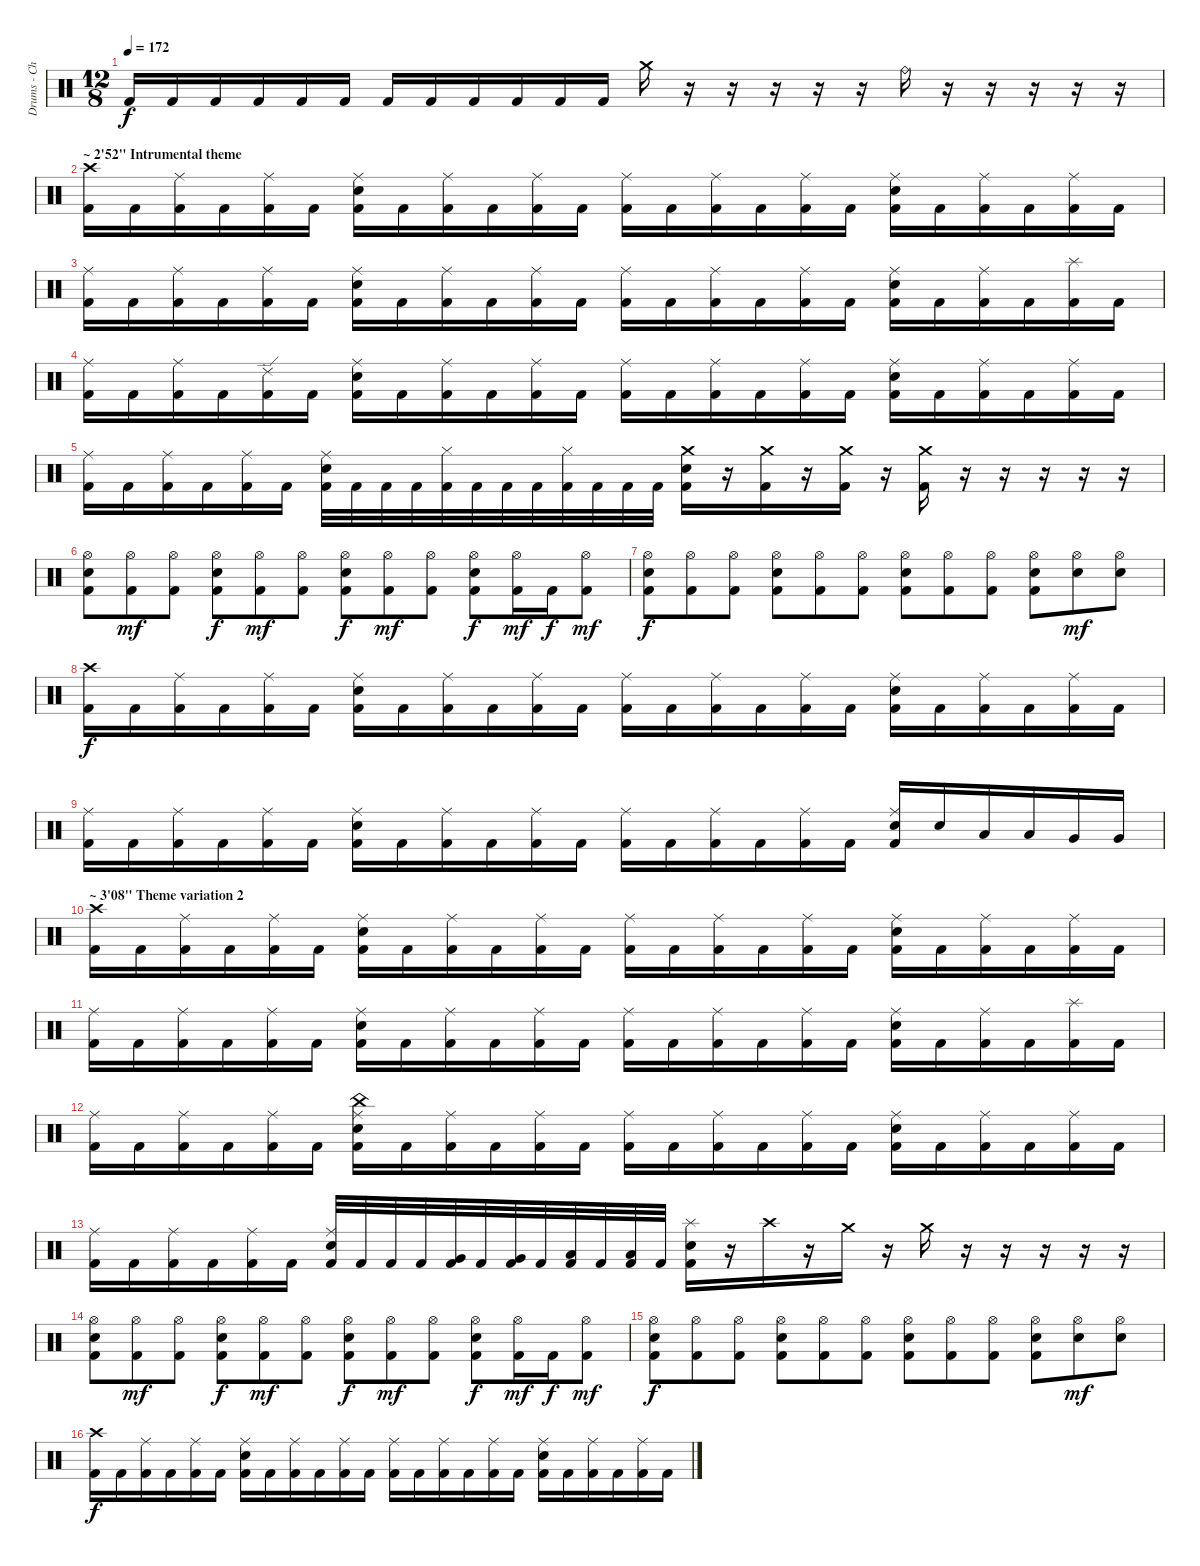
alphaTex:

\track ("Drums - Christopher Merzinsky" "Drums - Ch") {instrument percussion}
\staff {score}
\articulation defaults
\ts (12 8)
\tempo 172
\clef neutral
\ks c "Kick (hit) 2".16{dy f} "Kick (hit) 2".16 "Kick (hit) 2".16 "Kick (hit) 2".16 "Kick (hit) 2".16 "Kick (hit) 2".16 "Kick (hit) 2".16 "Kick (hit) 2".16 "Kick (hit) 2".16 "Kick (hit) 2".16 "Kick (hit) 2".16 "Kick (hit) 2".16 "Crash medium (hit)".16
r.16 r.16 r.16 r.16 r.16 "Ride (bell)".16 r.16 r.16 r.16 r.16 r.16 |
\section ("" "~ 2'52\" Intrumental theme ")
("Kick (hit) 2" "Crash high (hit)").16 "Kick (hit) 2".16 ("Kick (hit) 2" "Ride (middle)").16 "Kick (hit) 2".16 ("Kick (hit) 2" "Ride (middle)").16 "Kick (hit) 2".16 ("Kick (hit) 2" "Electric Snare (hit)" "Ride (middle)").16 "Kick (hit) 2".16 ("Kick (hit) 2" "Ride (middle)").16 "Kick (hit) 2".16 ("Kick (hit) 2" "Ride (middle)").16 "Kick (hit) 2".16 ("Kick (hit) 2" "Ride (middle)").16 "Kick (hit) 2".16 ("Kick (hit) 2" "Ride (middle)").16 "Kick (hit) 2".16 ("Kick (hit) 2" "Ride (middle)").16 "Kick (hit) 2".16 ("Kick (hit) 2" "Electric Snare (hit)" "Ride (middle)").16 "Kick (hit) 2".16 ("Kick (hit) 2" "Ride (middle)").16 "Kick (hit) 2".16 ("Kick (hit) 2" "Ride (middle)").16 "Kick (hit) 2".16 |
("Kick (hit) 2" "Ride (middle)").16 "Kick (hit) 2".16 ("Kick (hit) 2" "Ride (middle)").16 "Kick (hit) 2".16 ("Kick (hit) 2" "Ride (middle)").16 "Kick (hit) 2".16 ("Kick (hit) 2" "Electric Snare (hit)" "Ride (middle)").16 "Kick (hit) 2".16 ("Kick (hit) 2" "Ride (middle)").16 "Kick (hit) 2".16 ("Kick (hit) 2" "Ride (middle)").16 "Kick (hit) 2".16 ("Kick (hit) 2" "Ride (middle)").16 "Kick (hit) 2".16 ("Kick (hit) 2" "Ride (middle)").16 "Kick (hit) 2".16 ("Kick (hit) 2" "Ride (middle)").16 "Kick (hit) 2".16 ("Kick (hit) 2" "Electric Snare (hit)" "Ride (middle)").16 "Kick (hit) 2".16 ("Kick (hit) 2" "Ride (middle)").16 "Kick (hit) 2".16 ("Kick (hit) 2" "Splash (hit)").16 "Kick (hit) 2".16 |
("Kick (hit) 2" "Ride (middle)").16 "Kick (hit) 2".16 ("Kick (hit) 2" "Ride (middle)").16 "Kick (hit) 2".16 ("Kick (hit) 2" "Ride (edge) 2").16 "Kick (hit) 2".16 ("Kick (hit) 2" "Electric Snare (hit)" "Ride (middle)").16 "Kick (hit) 2".16 ("Kick (hit) 2" "Ride (middle)").16 "Kick (hit) 2".16 ("Kick (hit) 2" "Ride (middle)").16 "Kick (hit) 2".16 ("Kick (hit) 2" "Ride (middle)").16 "Kick (hit) 2".16 ("Kick (hit) 2" "Ride (middle)").16 "Kick (hit) 2".16 ("Kick (hit) 2" "Ride (middle)").16 "Kick (hit) 2".16 ("Kick (hit) 2" "Electric Snare (hit)" "Ride (middle)").16 "Kick (hit) 2".16 ("Kick (hit) 2" "Ride (middle)").16 "Kick (hit) 2".16 ("Kick (hit) 2" "Ride (middle)").16 "Kick (hit) 2".16 |
("Kick (hit) 2" "Ride (middle)").16 "Kick (hit) 2".16 ("Kick (hit) 2" "Ride (middle)").16 "Kick (hit) 2".16 ("Kick (hit) 2" "Ride (middle)").16 "Kick (hit) 2".16 ("Kick (hit) 2" "Electric Snare (hit)" "Ride (middle)").32 "Kick (hit) 2".32 "Kick (hit) 2".32 "Kick (hit) 2".32 ("Kick (hit) 2" "Hi-Hat (closed)").32 "Kick (hit) 2".32 "Kick (hit) 2".32 "Kick (hit) 2".32 ("Kick (hit) 2" "Hi-Hat (closed)").32 "Kick (hit) 2".32 "Kick (hit) 2".32 "Kick (hit) 2".32 ("Electric Snare (hit)" "Kick (hit) 2" "Crash medium (hit)").16 r.16 ("Crash medium (hit)" "Kick (hit) 2").16 r.16 ("Crash medium (hit)" "Kick (hit) 2").16 r.16 ("Crash medium (hit)" "Kick (hit) 2").16 r.16 r.16 r.16 r.16 r.16 |
("Electric Snare (hit)" "Kick (hit) 2" "Hi-Hat (open)").8 ("Kick (hit) 2" "Hi-Hat (open)").8{dy mf} ("Kick (hit) 2" "Hi-Hat (open)").8 ("Electric Snare (hit)" "Kick (hit) 2" "Hi-Hat (open)").8{dy f} ("Kick (hit) 2" "Hi-Hat (open)").8{dy mf} ("Kick (hit) 2" "Hi-Hat (open)").8 ("Electric Snare (hit)" "Kick (hit) 2" "Hi-Hat (open)").8{dy f} ("Kick (hit) 2" "Hi-Hat (open)").8{dy mf} ("Kick (hit) 2" "Hi-Hat (open)").8 ("Electric Snare (hit)" "Kick (hit) 2" "Hi-Hat (open)").8{dy f} ("Kick (hit) 2" "Hi-Hat (open)").16{dy mf} "Kick (hit) 2".16{dy f} ("Kick (hit) 2" "Hi-Hat (open)").8{dy mf} |
("Electric Snare (hit)" "Hi-Hat (open)" "Kick (hit) 2").8{dy f} ("Hi-Hat (open)" "Kick (hit) 2").8 ("Hi-Hat (open)" "Kick (hit) 2").8 ("Electric Snare (hit)" "Hi-Hat (open)" "Kick (hit) 2").8 ("Hi-Hat (open)" "Kick (hit) 2").8 ("Hi-Hat (open)" "Kick (hit) 2").8 ("Electric Snare (hit)" "Hi-Hat (open)" "Kick (hit) 2").8 ("Hi-Hat (open)" "Kick (hit) 2").8 ("Hi-Hat (open)" "Kick (hit) 2").8 ("Electric Snare (hit)" "Hi-Hat (open)" "Kick (hit) 2").8 ("Electric Snare (hit)" "Hi-Hat (open)").8{dy mf} ("Electric Snare (hit)" "Hi-Hat (open)").8 |
("Kick (hit) 2" "Crash high (hit)").16{dy f} "Kick (hit) 2".16 ("Kick (hit) 2" "Ride (middle)").16 "Kick (hit) 2".16 ("Kick (hit) 2" "Ride (middle)").16 "Kick (hit) 2".16 ("Kick (hit) 2" "Electric Snare (hit)" "Ride (middle)").16 "Kick (hit) 2".16 ("Kick (hit) 2" "Ride (middle)").16 "Kick (hit) 2".16 ("Kick (hit) 2" "Ride (middle)").16 "Kick (hit) 2".16 ("Kick (hit) 2" "Ride (middle)").16 "Kick (hit) 2".16 ("Kick (hit) 2" "Ride (middle)").16 "Kick (hit) 2".16 ("Kick (hit) 2" "Ride (middle)").16 "Kick (hit) 2".16 ("Kick (hit) 2" "Electric Snare (hit)" "Ride (middle)").16 "Kick (hit) 2".16 ("Kick (hit) 2" "Ride (middle)").16 "Kick (hit) 2".16 ("Kick (hit) 2" "Ride (middle)").16 "Kick (hit) 2".16 |
("Kick (hit) 2" "Ride (middle)").16 "Kick (hit) 2".16 ("Kick (hit) 2" "Ride (middle)").16 "Kick (hit) 2".16 ("Kick (hit) 2" "Ride (middle)").16 "Kick (hit) 2".16 ("Kick (hit) 2" "Electric Snare (hit)" "Ride (middle)").16 "Kick (hit) 2".16 ("Kick (hit) 2" "Ride (middle)").16 "Kick (hit) 2".16 ("Kick (hit) 2" "Ride (middle)").16 "Kick (hit) 2".16 ("Kick (hit) 2" "Ride (middle)").16 "Kick (hit) 2".16 ("Kick (hit) 2" "Ride (middle)").16 "Kick (hit) 2".16 ("Kick (hit) 2" "Ride (middle)").16 "Kick (hit) 2".16 ("Kick (hit) 2" "Electric Snare (hit)" "Ride (middle)").16 "Electric Snare (hit)".16 "Low Tom (hit)".16 "Low Tom (hit)".16 "Very Low Tom (hit)".16 "Very Low Tom (hit)".16 |
\section ("" "~ 3'08\" Theme variation 2")
("Kick (hit) 2" "Crash high (hit)").16 "Kick (hit) 2".16 ("Kick (hit) 2" "Ride (middle)").16 "Kick (hit) 2".16 ("Kick (hit) 2" "Ride (middle)").16 "Kick (hit) 2".16 ("Kick (hit) 2" "Electric Snare (hit)" "Ride (middle)").16 "Kick (hit) 2".16 ("Kick (hit) 2" "Ride (middle)").16 "Kick (hit) 2".16 ("Kick (hit) 2" "Ride (middle)").16 "Kick (hit) 2".16 ("Kick (hit) 2" "Ride (middle)").16 "Kick (hit) 2".16 ("Kick (hit) 2" "Ride (middle)").16 "Kick (hit) 2".16 ("Kick (hit) 2" "Ride (middle)").16 "Kick (hit) 2".16 ("Kick (hit) 2" "Electric Snare (hit)" "Ride (middle)").16 "Kick (hit) 2".16 ("Kick (hit) 2" "Ride (middle)").16 "Kick (hit) 2".16 ("Kick (hit) 2" "Ride (middle)").16 "Kick (hit) 2".16 |
("Kick (hit) 2" "Ride (middle)").16 "Kick (hit) 2".16 ("Kick (hit) 2" "Ride (middle)").16 "Kick (hit) 2".16 ("Kick (hit) 2" "Ride (middle)").16 "Kick (hit) 2".16 ("Kick (hit) 2" "Electric Snare (hit)" "Ride (middle)").16 "Kick (hit) 2".16 ("Kick (hit) 2" "Ride (middle)").16 "Kick (hit) 2".16 ("Kick (hit) 2" "Ride (middle)").16 "Kick (hit) 2".16 ("Kick (hit) 2" "Ride (middle)").16 "Kick (hit) 2".16 ("Kick (hit) 2" "Ride (middle)").16 "Kick (hit) 2".16 ("Kick (hit) 2" "Ride (middle)").16 "Kick (hit) 2".16 ("Kick (hit) 2" "Electric Snare (hit)" "Ride (middle)").16 "Kick (hit) 2".16 ("Kick (hit) 2" "Ride (middle)").16 "Kick (hit) 2".16 ("Kick (hit) 2" "Splash (hit)").16 "Kick (hit) 2".16 |
("Kick (hit) 2" "Ride (middle)").16 "Kick (hit) 2".16 ("Kick (hit) 2" "Ride (middle)").16 "Kick (hit) 2".16 ("Kick (hit) 2" "Ride (middle)").16 "Kick (hit) 2".16 ("Kick (hit) 2" "Electric Snare (hit)" "Ride (middle)" "China (hit)").16 "Kick (hit) 2".16 ("Kick (hit) 2" "Ride (middle)").16 "Kick (hit) 2".16 ("Kick (hit) 2" "Ride (middle)").16 "Kick (hit) 2".16 ("Kick (hit) 2" "Ride (middle)").16 "Kick (hit) 2".16 ("Kick (hit) 2" "Ride (middle)").16 "Kick (hit) 2".16 ("Kick (hit) 2" "Ride (middle)").16 "Kick (hit) 2".16 ("Kick (hit) 2" "Electric Snare (hit)" "Ride (middle)").16 "Kick (hit) 2".16 ("Kick (hit) 2" "Ride (middle)").16 "Kick (hit) 2".16 ("Kick (hit) 2" "Ride (middle)").16 "Kick (hit) 2".16 |
("Kick (hit) 2" "Ride (middle)").16 "Kick (hit) 2".16 ("Kick (hit) 2" "Ride (middle)").16 "Kick (hit) 2".16 ("Kick (hit) 2" "Ride (middle)").16 "Kick (hit) 2".16 ("Kick (hit) 2" "Electric Snare (hit)" "Ride (middle)").32 "Kick (hit) 2".32 "Kick (hit) 2".32 "Kick (hit) 2".32 ("Kick (hit) 2" "Very Low Tom (hit)").32 "Kick (hit) 2".32 ("Kick (hit) 2" "Very Low Tom (hit)").32 "Kick (hit) 2".32 ("Kick (hit) 2" "Low Floor Tom (hit)").32 "Kick (hit) 2".32 ("Kick (hit) 2" "Low Floor Tom (hit)").32 "Kick (hit) 2".32 ("Electric Snare (hit)" "Kick (hit) 2" "Splash (hit)").16 r.16 "Crash high (hit)".16 r.16 "Crash medium (hit)".16 r.16 "Crash medium (hit)".16 r.16 r.16 r.16 r.16 r.16 |
("Electric Snare (hit)" "Kick (hit) 2" "Hi-Hat (open)").8 ("Kick (hit) 2" "Hi-Hat (open)").8{dy mf} ("Kick (hit) 2" "Hi-Hat (open)").8 ("Electric Snare (hit)" "Kick (hit) 2" "Hi-Hat (open)").8{dy f} ("Kick (hit) 2" "Hi-Hat (open)").8{dy mf} ("Kick (hit) 2" "Hi-Hat (open)").8 ("Electric Snare (hit)" "Kick (hit) 2" "Hi-Hat (open)").8{dy f} ("Kick (hit) 2" "Hi-Hat (open)").8{dy mf} ("Kick (hit) 2" "Hi-Hat (open)").8 ("Electric Snare (hit)" "Kick (hit) 2" "Hi-Hat (open)").8{dy f} ("Kick (hit) 2" "Hi-Hat (open)").16{dy mf} "Kick (hit) 2".16{dy f} ("Kick (hit) 2" "Hi-Hat (open)").8{dy mf} |
("Electric Snare (hit)" "Hi-Hat (open)" "Kick (hit) 2").8{dy f} ("Hi-Hat (open)" "Kick (hit) 2").8 ("Hi-Hat (open)" "Kick (hit) 2").8 ("Electric Snare (hit)" "Hi-Hat (open)" "Kick (hit) 2").8 ("Hi-Hat (open)" "Kick (hit) 2").8 ("Hi-Hat (open)" "Kick (hit) 2").8 ("Electric Snare (hit)" "Hi-Hat (open)" "Kick (hit) 2").8 ("Hi-Hat (open)" "Kick (hit) 2").8 ("Hi-Hat (open)" "Kick (hit) 2").8 ("Electric Snare (hit)" "Hi-Hat (open)" "Kick (hit) 2").8 ("Electric Snare (hit)" "Hi-Hat (open)").8{dy mf} ("Electric Snare (hit)" "Hi-Hat (open)").8 |
("Kick (hit) 2" "Crash high (hit)").16{dy f} "Kick (hit) 2".16 ("Kick (hit) 2" "Ride (middle)").16 "Kick (hit) 2".16 ("Kick (hit) 2" "Ride (middle)").16 "Kick (hit) 2".16 ("Kick (hit) 2" "Electric Snare (hit)" "Ride (middle)").16 "Kick (hit) 2".16 ("Kick (hit) 2" "Ride (middle)").16 "Kick (hit) 2".16 ("Kick (hit) 2" "Ride (middle)").16 "Kick (hit) 2".16 ("Kick (hit) 2" "Ride (middle)").16 "Kick (hit) 2".16 ("Kick (hit) 2" "Ride (middle)").16 "Kick (hit) 2".16 ("Kick (hit) 2" "Ride (middle)").16 "Kick (hit) 2".16 ("Kick (hit) 2" "Electric Snare (hit)" "Ride (middle)").16 "Kick (hit) 2".16 ("Kick (hit) 2" "Ride (middle)").16 "Kick (hit) 2".16 ("Kick (hit) 2" "Ride (middle)").16 "Kick (hit) 2".16
